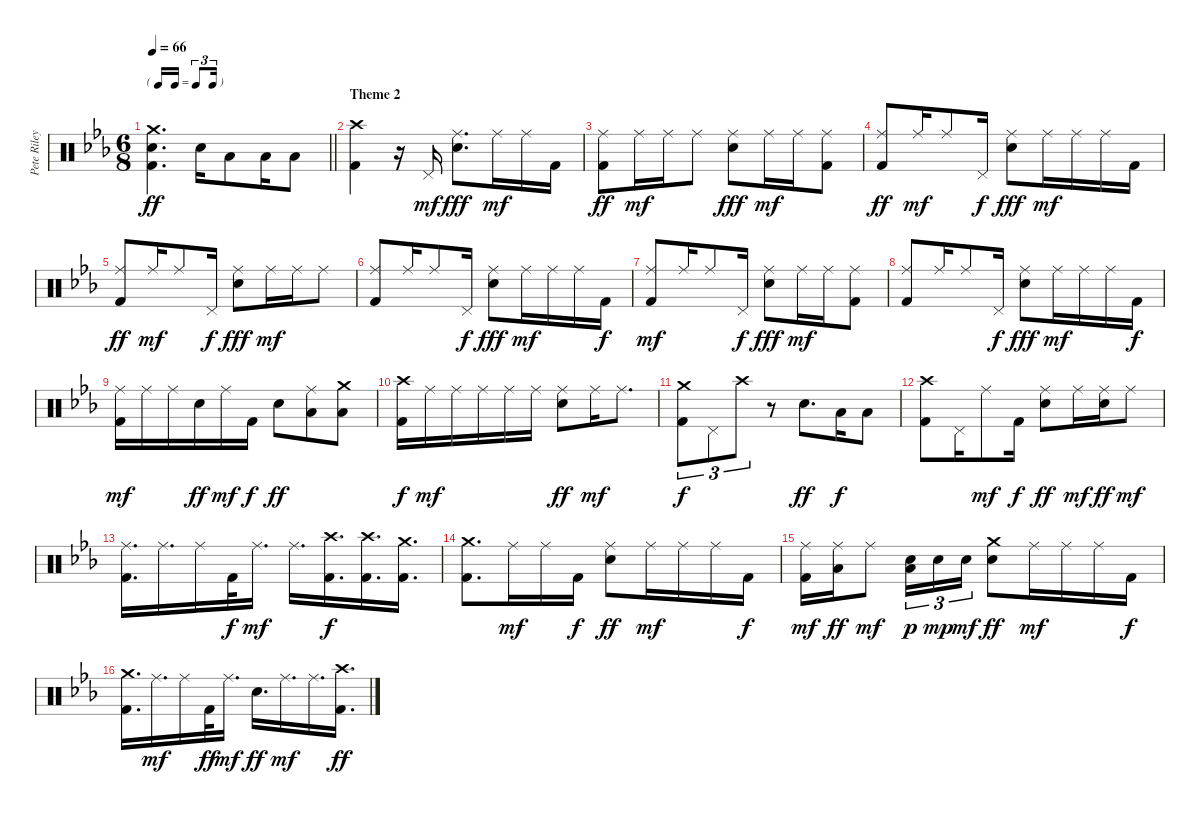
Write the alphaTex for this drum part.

\track ("Pete Riley, Drums" "Pete Riley") {instrument percussion}
\staff {score}
\articulation defaults
\ts (6 8)
\tf triplet16th
\tempo 66
\clef neutral
\barLineRight lightlight
\ks cminor
("Crash medium (hit)" "Snare (hit) 2" "Kick (hit) 2").4{d dy ff} "Snare (hit) 2".16 "Low Tom (hit)".8 "Low Floor Tom (hit)".16 "Low Floor Tom (hit)".8 |
\section ("" "Theme 2")
("Crash high (hit)" "Kick (hit) 2").4 r.16 "Pedal Hi-Hat (hit)".16{dy mf} ("Ride (middle)" "Snare (hit) 2").8{d dy fff} "Ride (middle)".16{dy mf} "Ride (middle)".16 "Kick (hit) 2".16 |
("Ride (middle)" "Kick (hit) 2").8{dy ff} "Ride (middle)".16{dy mf} "Ride (middle)".16 "Ride (middle)".8 ("Ride (middle)" "Snare (hit) 2").8{dy fff} "Ride (middle)".16{dy mf} "Ride (middle)".16 ("Ride (middle)" "Kick (hit) 2").8 |
("Ride (middle)" "Kick (hit) 2").8{dy ff} "Ride (middle)".16{dy mf} "Ride (middle)".8 "Pedal Hi-Hat (hit)".16{dy f} ("Ride (middle)" "Snare (hit) 2").8{dy fff} "Ride (middle)".16{dy mf} "Ride (middle)".16 "Ride (middle)".16 "Kick (hit) 2".16 |
("Ride (middle)" "Kick (hit) 2").8{dy ff} "Ride (middle)".16{dy mf} "Ride (middle)".8 "Pedal Hi-Hat (hit)".16{dy f} ("Ride (middle)" "Snare (hit) 2").8{dy fff} "Ride (middle)".16{dy mf} "Ride (middle)".16 "Ride (middle)".8 |
("Ride (middle)" "Kick (hit) 2").8 "Ride (middle)".16 "Ride (middle)".8 "Pedal Hi-Hat (hit)".16{dy f} ("Ride (middle)" "Snare (hit) 2").8{dy fff} "Ride (middle)".16{dy mf} "Ride (middle)".16 "Ride (middle)".16 "Kick (hit) 2".16{dy f} |
("Ride (middle)" "Kick (hit) 2").8{dy mf} "Ride (middle)".16 "Ride (middle)".8 "Pedal Hi-Hat (hit)".16{dy f} ("Ride (middle)" "Snare (hit) 2").8{dy fff} "Ride (middle)".16{dy mf} "Ride (middle)".16 ("Ride (middle)" "Kick (hit) 2").8 |
("Ride (middle)" "Kick (hit) 2").8 "Ride (middle)".16 "Ride (middle)".8 "Pedal Hi-Hat (hit)".16{dy f} ("Ride (middle)" "Snare (hit) 2").8{dy fff} "Ride (middle)".16{dy mf} "Ride (middle)".16 "Ride (middle)".16 "Kick (hit) 2".16{dy f} |
("Ride (middle)" "Kick (hit) 2").16{dy mf} "Ride (middle)".16 "Ride (middle)".16 "Snare (hit) 2".16{dy ff} "Ride (middle)".16{dy mf} "Kick (hit) 2".16{dy f} "Snare (hit) 2".8{dy ff} ("Ride (middle)" "Low Tom (hit)").8 ("Crash medium (hit)" "Low Floor Tom (hit)").8 |
("Crash high (hit)" "Kick (hit) 2").16{dy f} "Ride (middle)".16{dy mf} "Ride (middle)".16 "Ride (middle)".16 "Ride (middle)".16 "Ride (middle)".16 ("Ride (middle)" "Snare (hit) 2").8{dy ff} "Ride (middle)".16{dy mf} "Ride (middle)".8{d} |
("Crash medium (hit)" "Kick (hit) 2").8{tu (3 2) dy f} "Pedal Hi-Hat (hit)".8{tu (3 2)} "Crash high (hit)".8{tu (3 2)} r.8 "Snare (hit) 2".8{d dy ff} "Low Tom (hit)".16{dy f} "Low Floor Tom (hit)".8 |
("Crash high (hit)" "Kick (hit) 2").8 "Pedal Hi-Hat (hit)".16 "Ride (middle)".8{dy mf} "Kick (hit) 2".16{dy f} ("Ride (middle)" "Snare (hit) 2").8{dy ff} "Ride (middle)".16{dy mf} ("Ride (middle)" "Snare (hit) 2").16{dy ff} "Ride (middle)".8{dy mf} |
("Ride (middle)" "Kick (hit) 2").16{d} "Ride (middle)".16{d} "Ride (middle)".16 "Kick (hit) 2".32{dy f} "Ride (middle)".16{d dy mf} "Ride (middle)".16{d} ("Crash high (hit)" "Kick (hit) 2").16{d dy f} ("Crash high (hit)" "Kick (hit) 2").16{d} ("Crash medium (hit)" "Kick (hit) 2").16{d} |
("Crash medium (hit)" "Kick (hit) 2").8{d} "Ride (middle)".16{dy mf} "Ride (middle)".16 "Kick (hit) 2".16{dy f} ("Ride (middle)" "Snare (hit) 2").8{dy ff} "Ride (middle)".16{dy mf} "Ride (middle)".16 "Ride (middle)".16 "Kick (hit) 2".16{dy f} |
("Ride (middle)" "Kick (hit) 2").16{dy mf} ("Ride (middle)" "Low Tom (hit)").16{dy ff} "Ride (middle)".8{dy mf} ("Low Floor Tom (hit)" "Snare (hit) 2").16{tu (3 2) dy p} "Snare (hit) 2".16{tu (3 2) dy mp} "Snare (hit) 2".16{tu (3 2) dy mf} ("Crash medium (hit)" "Snare (hit) 2").8{dy ff} "Ride (middle)".16{dy mf} "Ride (middle)".16 "Ride (middle)".16 "Kick (hit) 2".16{dy f} |
("Crash medium (hit)" "Kick (hit) 2").16{d} "Ride (middle)".16{d dy mf} "Ride (middle)".16 "Kick (hit) 2".32{dy ff} "Ride (middle)".16{d dy mf} "Snare (hit) 2".16{d dy ff} "Ride (middle)".16{d dy mf} "Ride (middle)".16{d} ("Crash high (hit)" "Kick (hit) 2").16{d dy ff}
